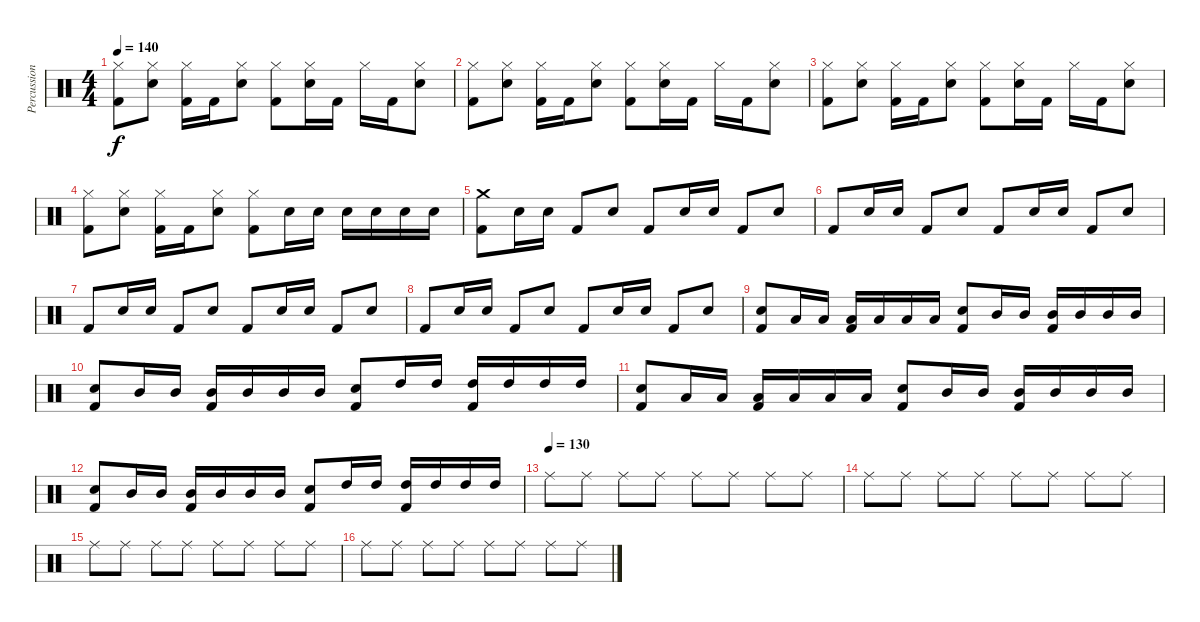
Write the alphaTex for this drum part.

\track ("Percussion" "Percussion") {instrument percussion}
\staff {score}
\articulation defaults
\ts (4 4)
\tempo 140
\clef neutral
\ks c
("Hi-Hat (closed)" "Kick (hit) 2").8{dy f} ("Hi-Hat (closed)" "Snare (hit) 2").8 ("Hi-Hat (closed)" "Kick (hit) 2").16 "Kick (hit) 2".16 ("Hi-Hat (closed)" "Snare (hit) 2").8 ("Hi-Hat (closed)" "Kick (hit) 2").8 ("Hi-Hat (closed)" "Snare (hit) 2").16 "Kick (hit) 2".16 "Hi-Hat (closed)".16 "Kick (hit) 2".16 ("Hi-Hat (closed)" "Snare (hit) 2").8 |
("Hi-Hat (closed)" "Kick (hit) 2").8 ("Hi-Hat (closed)" "Snare (hit) 2").8 ("Hi-Hat (closed)" "Kick (hit) 2").16 "Kick (hit) 2".16 ("Hi-Hat (closed)" "Snare (hit) 2").8 ("Hi-Hat (closed)" "Kick (hit) 2").8 ("Hi-Hat (closed)" "Snare (hit) 2").16 "Kick (hit) 2".16 "Hi-Hat (closed)".16 "Kick (hit) 2".16 ("Hi-Hat (closed)" "Snare (hit) 2").8 |
("Hi-Hat (closed)" "Kick (hit) 2").8 ("Hi-Hat (closed)" "Snare (hit) 2").8 ("Hi-Hat (closed)" "Kick (hit) 2").16 "Kick (hit) 2".16 ("Hi-Hat (closed)" "Snare (hit) 2").8 ("Hi-Hat (closed)" "Kick (hit) 2").8 ("Hi-Hat (closed)" "Snare (hit) 2").16 "Kick (hit) 2".16 "Hi-Hat (closed)".16 "Kick (hit) 2".16 ("Hi-Hat (closed)" "Snare (hit) 2").8 |
("Hi-Hat (closed)" "Kick (hit) 2").8 ("Hi-Hat (closed)" "Snare (hit) 2").8 ("Hi-Hat (closed)" "Kick (hit) 2").16 "Kick (hit) 2".16 ("Hi-Hat (closed)" "Snare (hit) 2").8 ("Hi-Hat (closed)" "Kick (hit) 2").8 "Snare (hit) 2".16 "Snare (hit) 2".16 "Snare (hit) 2".16 "Snare (hit) 2".16 "Snare (hit) 2".16 "Snare (hit) 2".16 |
("Crash medium (hit)" "Kick (hit) 2").8 "Snare (hit) 2".16 "Snare (hit) 2".16 "Kick (hit) 2".8 "Snare (hit) 2".8 "Kick (hit) 2".8 "Snare (hit) 2".16 "Snare (hit) 2".16 "Kick (hit) 2".8 "Snare (hit) 2".8 |
"Kick (hit) 2".8 "Snare (hit) 2".16 "Snare (hit) 2".16 "Kick (hit) 2".8 "Snare (hit) 2".8 "Kick (hit) 2".8 "Snare (hit) 2".16 "Snare (hit) 2".16 "Kick (hit) 2".8 "Snare (hit) 2".8 |
"Kick (hit) 2".8 "Snare (hit) 2".16 "Snare (hit) 2".16 "Kick (hit) 2".8 "Snare (hit) 2".8 "Kick (hit) 2".8 "Snare (hit) 2".16 "Snare (hit) 2".16 "Kick (hit) 2".8 "Snare (hit) 2".8 |
"Kick (hit) 2".8 "Snare (hit) 2".16 "Snare (hit) 2".16 "Kick (hit) 2".8 "Snare (hit) 2".8 "Kick (hit) 2".8 "Snare (hit) 2".16 "Snare (hit) 2".16 "Kick (hit) 2".8 "Snare (hit) 2".8 |
("Snare (hit) 2" "Kick (hit) 2").8 "Low Tom (hit)".16 "Low Tom (hit)".16 ("Low Tom (hit)" "Kick (hit) 2").16 "Low Tom (hit)".16 "Low Tom (hit)".16 "Low Tom (hit)".16 ("Snare (hit) 2" "Kick (hit) 2").8 "Mid Tom (hit)".16 "Mid Tom (hit)".16 ("Mid Tom (hit)" "Kick (hit) 2").16 "Mid Tom (hit)".16 "Mid Tom (hit)".16 "Mid Tom (hit)".16 |
("Snare (hit) 2" "Kick (hit) 2").8 "Mid Tom (hit)".16 "Mid Tom (hit)".16 ("Mid Tom (hit)" "Kick (hit) 2").16 "Mid Tom (hit)".16 "Mid Tom (hit)".16 "Mid Tom (hit)".16 ("Snare (hit) 2" "Kick (hit) 2").8 "High Tom (hit)".16 "High Tom (hit)".16 ("High Tom (hit)" "Kick (hit) 2").16 "High Tom (hit)".16 "High Tom (hit)".16 "High Tom (hit)".16 |
("Snare (hit) 2" "Kick (hit) 2").8 "Low Tom (hit)".16 "Low Tom (hit)".16 ("Low Tom (hit)" "Kick (hit) 2").16 "Low Tom (hit)".16 "Low Tom (hit)".16 "Low Tom (hit)".16 ("Snare (hit) 2" "Kick (hit) 2").8 "Mid Tom (hit)".16 "Mid Tom (hit)".16 ("Mid Tom (hit)" "Kick (hit) 2").16 "Mid Tom (hit)".16 "Mid Tom (hit)".16 "Mid Tom (hit)".16 |
("Snare (hit) 2" "Kick (hit) 2").8 "Mid Tom (hit)".16 "Mid Tom (hit)".16 ("Mid Tom (hit)" "Kick (hit) 2").16 "Mid Tom (hit)".16 "Mid Tom (hit)".16 "Mid Tom (hit)".16 ("Snare (hit) 2" "Kick (hit) 2").8 "High Tom (hit)".16 "High Tom (hit)".16 ("High Tom (hit)" "Kick (hit) 2").16 "High Tom (hit)".16 "High Tom (hit)".16 "High Tom (hit)".16 |
\tempo (130)
"Ride (middle)".8 "Ride (middle)".8 "Ride (middle)".8 "Ride (middle)".8 "Ride (middle)".8 "Ride (middle)".8 "Ride (middle)".8 "Ride (middle)".8 |
"Ride (middle)".8 "Ride (middle)".8 "Ride (middle)".8 "Ride (middle)".8 "Ride (middle)".8 "Ride (middle)".8 "Ride (middle)".8 "Ride (middle)".8 |
"Ride (middle)".8 "Ride (middle)".8 "Ride (middle)".8 "Ride (middle)".8 "Ride (middle)".8 "Ride (middle)".8 "Ride (middle)".8 "Ride (middle)".8 |
"Ride (middle)".8 "Ride (middle)".8 "Ride (middle)".8 "Ride (middle)".8 "Ride (middle)".8 "Ride (middle)".8 "Ride (middle)".8 "Ride (middle)".8
